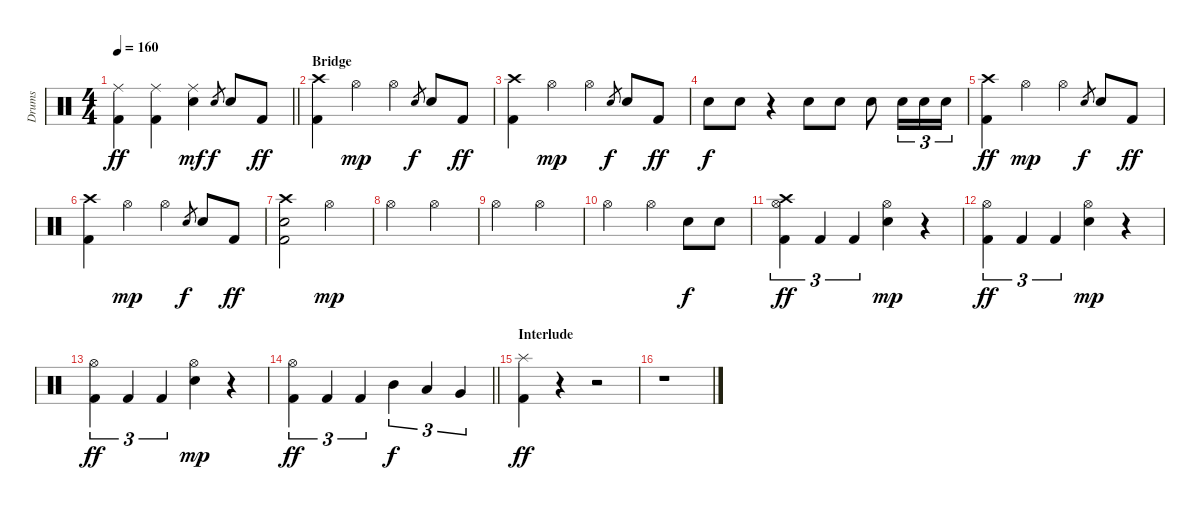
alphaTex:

\track ("Drums" "Drums") {instrument percussion}
\staff {score}
\articulation defaults
\ts (4 4)
\tempo 160
\clef neutral
\barLineRight lightlight
\ks c
("Ride (middle)" "Kick (hit) 2").4{dy ff} ("Ride (middle)" "Kick (hit) 2").4 ("Ride (middle)" "Electric Snare (hit)").4{dy mf} "Electric Snare (hit)".8{gr dy f} "Electric Snare (hit)".8 "Kick (hit) 2".8{dy ff} |
\section ("" "Bridge")
("Crash high (hit)" "Kick (hit) 2").4 "Hi-Hat (open)".4{dy mp} "Hi-Hat (open)".4 "Electric Snare (hit)".8{gr dy f} "Electric Snare (hit)".8 "Kick (hit) 2".8{dy ff} |
("Crash high (hit)" "Kick (hit) 2").4 "Hi-Hat (open)".4{dy mp} "Hi-Hat (open)".4 "Electric Snare (hit)".8{gr dy f} "Electric Snare (hit)".8 "Kick (hit) 2".8{dy ff} |
"Electric Snare (hit)".8{dy f} "Electric Snare (hit)".8 r.4 "Electric Snare (hit)".8 "Electric Snare (hit)".8 "Electric Snare (hit)".8 "Electric Snare (hit)".16{tu (3 2)} "Electric Snare (hit)".16{tu (3 2)} "Electric Snare (hit)".16{tu (3 2)} |
("Crash high (hit)" "Kick (hit) 2").4{dy ff} "Hi-Hat (open)".4{dy mp} "Hi-Hat (open)".4 "Electric Snare (hit)".8{gr dy f} "Electric Snare (hit)".8 "Kick (hit) 2".8{dy ff} |
("Crash high (hit)" "Kick (hit) 2").4 "Hi-Hat (open)".4{dy mp} "Hi-Hat (open)".4 "Electric Snare (hit)".8{gr dy f} "Electric Snare (hit)".8 "Kick (hit) 2".8{dy ff} |
("Crash high (hit)" "Electric Snare (hit)" "Kick (hit) 2").2 "Hi-Hat (open)".2{dy mp} |
"Hi-Hat (open)".2 "Hi-Hat (open)".2 |
"Hi-Hat (open)".2 "Hi-Hat (open)".2 |
"Hi-Hat (open)".2 "Hi-Hat (open)".4 "Electric Snare (hit)".8{dy f} "Electric Snare (hit)".8 |
("Crash high (hit)" "Hi-Hat (open)" "Kick (hit) 2").4{tu (3 2) dy ff} "Kick (hit) 2".4{tu (3 2)} "Kick (hit) 2".4{tu (3 2)} ("Hi-Hat (open)" "Electric Snare (hit)").4{dy mp} r.4 |
("Hi-Hat (open)" "Kick (hit) 2").4{tu (3 2) dy ff} "Kick (hit) 2".4{tu (3 2)} "Kick (hit) 2".4{tu (3 2)} ("Hi-Hat (open)" "Electric Snare (hit)").4{dy mp} r.4 |
("Hi-Hat (open)" "Kick (hit) 2").4{tu (3 2) dy ff} "Kick (hit) 2".4{tu (3 2)} "Kick (hit) 2".4{tu (3 2)} ("Hi-Hat (open)" "Electric Snare (hit)").4{dy mp} r.4 |
\barLineRight lightlight
("Hi-Hat (open)" "Kick (hit) 2").4{tu (3 2) dy ff} "Kick (hit) 2".4{tu (3 2)} "Kick (hit) 2".4{tu (3 2)} "Mid Tom (hit)".4{tu (3 2) dy f} "Low Tom (hit)".4{tu (3 2)} "Very Low Tom (hit)".4{tu (3 2)} |
\section ("" "Interlude")
("Splash (hit)" "Kick (hit) 2").4{dy ff} r.4 r.2 |
r.1
